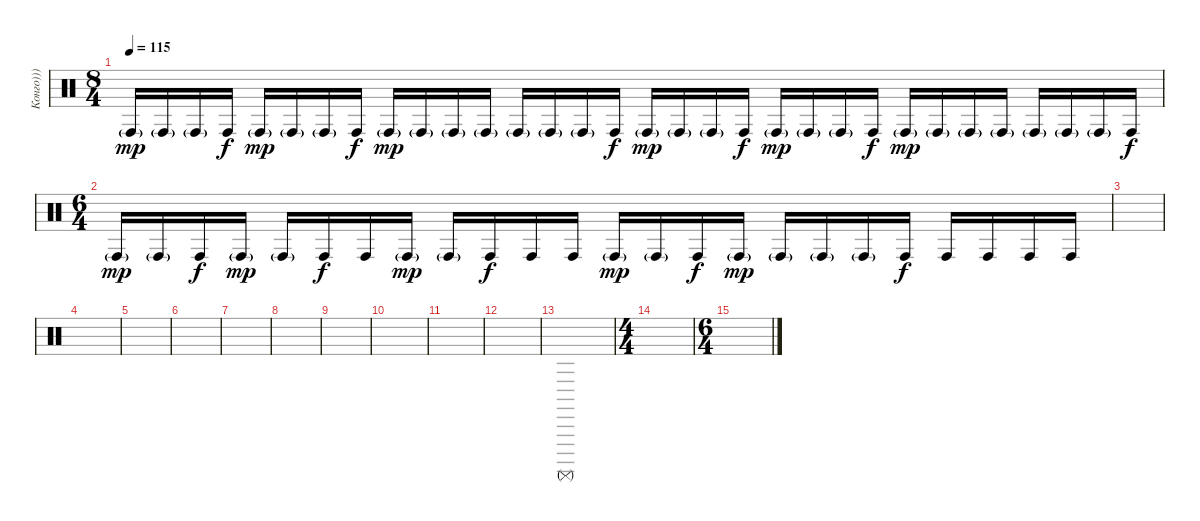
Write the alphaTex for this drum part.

\track ("Конго)))" "Конго)))") {instrument percussion}
\staff {score}
\articulation defaults
\ts (8 4)
\tempo 115
\clef neutral
\ks c "Conga high (hit)"{g}.16{dy mp} "Conga high (hit)"{g}.16 "Conga high (hit)"{g}.16 "Conga high (hit)".16{dy f} "Conga high (hit)"{g}.16{dy mp} "Conga high (hit)"{g}.16 "Conga high (hit)"{g}.16 "Conga high (hit)".16{dy f} "Conga high (hit)"{g}.16{dy mp} "Conga high (hit)"{g}.16 "Conga high (hit)"{g}.16 "Conga high (hit)"{g}.16 "Conga high (hit)"{g}.16 "Conga high (hit)"{g}.16 "Conga high (hit)"{g}.16 "Conga high (hit)".16{dy f} "Conga high (hit)"{g}.16{dy mp} "Conga high (hit)"{g}.16 "Conga high (hit)"{g}.16 "Conga high (hit)".16{dy f} "Conga high (hit)"{g}.16{dy mp} "Conga high (hit)"{g}.16 "Conga high (hit)"{g}.16 "Conga high (hit)".16{dy f} "Conga high (hit)"{g}.16{dy mp} "Conga high (hit)"{g}.16 "Conga high (hit)"{g}.16 "Conga high (hit)"{g}.16 "Conga high (hit)"{g}.16 "Conga high (hit)"{g}.16 "Conga high (hit)"{g}.16 "Conga high (hit)".16{dy f}
|
\ts (6 4)
"Conga high (hit)"{g}.16{dy mp} "Conga high (hit)"{g}.16 "Conga high (hit)".16{dy f} "Conga high (hit)"{g}.16{dy mp} "Conga high (hit)"{g}.16 "Conga high (hit)".16{dy f} "Conga high (hit)".16 "Conga high (hit)"{g}.16{dy mp} "Conga high (hit)"{g}.16 "Conga high (hit)".16{dy f} "Conga high (hit)".16 "Conga high (hit)".16 "Conga high (hit)"{g}.16{dy mp} "Conga high (hit)"{g}.16 "Conga high (hit)".16{dy f} "Conga high (hit)"{g}.16{dy mp} "Conga high (hit)"{g}.16 "Conga high (hit)"{g}.16 "Conga high (hit)"{g}.16 "Conga high (hit)".16{dy f} "Conga high (hit)".16 "Conga high (hit)".16 "Conga high (hit)".16 "Conga high (hit)".16 |
|
|
|
|
|
|
|
|
|
|
"Surdo (mute)".1 |
\ts (4 4)
|
\ts (6 4)
